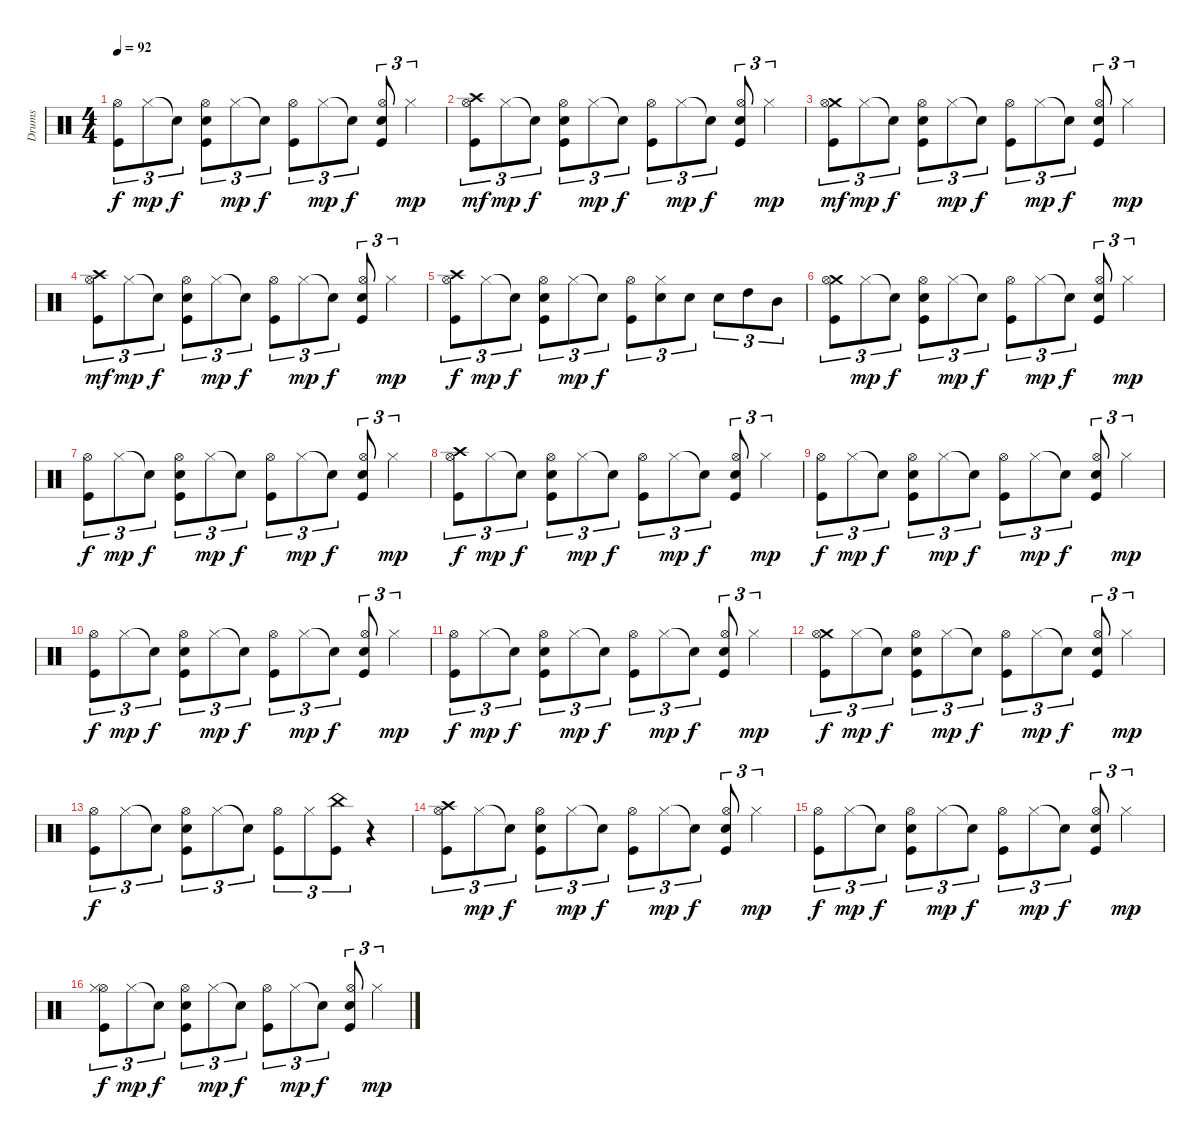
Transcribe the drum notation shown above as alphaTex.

\track ("Drums" "Drums") {instrument percussion}
\staff {score}
\articulation defaults
\ts (4 4)
\tempo 92
\clef neutral
\ks c
("Kick (hit)" "Hi-Hat (open)").8{tu (3 2) dy f} "Hi-Hat (closed)".8{tu (3 2) dy mp} "Snare (hit)"{t}.8{tu (3 2) dy f} ("Kick (hit)" "Hi-Hat (open)" "Snare (hit) 2").8{tu (3 2)} "Hi-Hat (closed)".8{tu (3 2) dy mp} "Snare (hit)"{t}.8{tu (3 2) dy f} ("Hi-Hat (open)" "Kick (hit)").8{tu (3 2)} "Hi-Hat (closed)".8{tu (3 2) dy mp} "Snare (hit)"{t}.8{tu (3 2) dy f} ("Kick (hit)" "Snare (hit) 2" "Hi-Hat (open)").8{tu (3 2)} "Hi-Hat (closed)".4{tu (3 2) dy mp} |
("Crash high (hit)" "Kick (hit)" "Hi-Hat (open)").8{tu (3 2) dy mf} "Hi-Hat (closed)".8{tu (3 2) dy mp} "Snare (hit)"{t}.8{tu (3 2) dy f} ("Kick (hit)" "Hi-Hat (open)" "Snare (hit) 2").8{tu (3 2)} "Hi-Hat (closed)".8{tu (3 2) dy mp} "Snare (hit)"{t}.8{tu (3 2) dy f} ("Hi-Hat (open)" "Kick (hit)").8{tu (3 2)} "Hi-Hat (closed)".8{tu (3 2) dy mp} "Snare (hit)"{t}.8{tu (3 2) dy f} ("Kick (hit)" "Snare (hit) 2" "Hi-Hat (open)").8{tu (3 2)} "Hi-Hat (closed)".4{tu (3 2) dy mp} |
("Crash medium (hit)" "Kick (hit)" "Hi-Hat (open)").8{tu (3 2) dy mf} "Hi-Hat (closed)".8{tu (3 2) dy mp} "Snare (hit)"{t}.8{tu (3 2) dy f} ("Kick (hit)" "Hi-Hat (open)" "Snare (hit) 2").8{tu (3 2)} "Hi-Hat (closed)".8{tu (3 2) dy mp} "Snare (hit)"{t}.8{tu (3 2) dy f} ("Hi-Hat (open)" "Kick (hit)").8{tu (3 2)} "Hi-Hat (closed)".8{tu (3 2) dy mp} "Snare (hit)"{t}.8{tu (3 2) dy f} ("Kick (hit)" "Snare (hit) 2" "Hi-Hat (open)").8{tu (3 2)} "Hi-Hat (closed)".4{tu (3 2) dy mp} |
("Crash high (hit)" "Kick (hit)" "Hi-Hat (open)").8{tu (3 2) dy mf} "Hi-Hat (closed)".8{tu (3 2) dy mp} "Snare (hit)"{t}.8{tu (3 2) dy f} ("Kick (hit)" "Hi-Hat (open)" "Snare (hit) 2").8{tu (3 2)} "Hi-Hat (closed)".8{tu (3 2) dy mp} "Snare (hit)"{t}.8{tu (3 2) dy f} ("Hi-Hat (open)" "Kick (hit)").8{tu (3 2)} "Hi-Hat (closed)".8{tu (3 2) dy mp} "Snare (hit)"{t}.8{tu (3 2) dy f} ("Kick (hit)" "Snare (hit) 2" "Hi-Hat (open)").8{tu (3 2)} "Hi-Hat (closed)".4{tu (3 2) dy mp} |
("Crash high (hit)" "Kick (hit)" "Hi-Hat (open)").8{tu (3 2) dy f} "Hi-Hat (closed)".8{tu (3 2) dy mp} "Snare (hit)"{t}.8{tu (3 2) dy f} ("Snare (hit) 2" "Kick (hit)" "Hi-Hat (open)").8{tu (3 2)} "Hi-Hat (closed)".8{tu (3 2) dy mp} "Snare (hit)"{t}.8{tu (3 2) dy f} ("Hi-Hat (open)" "Kick (hit)").8{tu (3 2)} ("Electric Snare (hit)" "Hi-Hat (closed)").8{tu (3 2)} "Electric Snare (hit)".8{tu (3 2)} "Electric Snare (hit)".8{tu (3 2)} "High Tom (hit)".8{tu (3 2)} "Mid Tom (hit)".8{tu (3 2)} |
("Crash medium (hit)" "Kick (hit)" "Hi-Hat (open)").8{tu (3 2)} "Hi-Hat (closed)".8{tu (3 2) dy mp} "Snare (hit)"{t}.8{tu (3 2) dy f} ("Kick (hit)" "Hi-Hat (open)" "Snare (hit) 2").8{tu (3 2)} "Hi-Hat (closed)".8{tu (3 2) dy mp} "Snare (hit)"{t}.8{tu (3 2) dy f} ("Hi-Hat (open)" "Kick (hit)").8{tu (3 2)} "Hi-Hat (closed)".8{tu (3 2) dy mp} "Snare (hit)"{t}.8{tu (3 2) dy f} ("Kick (hit)" "Snare (hit) 2" "Hi-Hat (open)").8{tu (3 2)} "Hi-Hat (closed)".4{tu (3 2) dy mp} |
("Kick (hit)" "Hi-Hat (open)").8{tu (3 2) dy f} "Hi-Hat (closed)".8{tu (3 2) dy mp} "Snare (hit)"{t}.8{tu (3 2) dy f} ("Kick (hit)" "Hi-Hat (open)" "Snare (hit) 2").8{tu (3 2)} "Hi-Hat (closed)".8{tu (3 2) dy mp} "Snare (hit)"{t}.8{tu (3 2) dy f} ("Hi-Hat (open)" "Kick (hit)").8{tu (3 2)} "Hi-Hat (closed)".8{tu (3 2) dy mp} "Snare (hit)"{t}.8{tu (3 2) dy f} ("Kick (hit)" "Snare (hit) 2" "Hi-Hat (open)").8{tu (3 2)} "Hi-Hat (closed)".4{tu (3 2) dy mp} |
("Crash high (hit)" "Kick (hit)" "Hi-Hat (open)").8{tu (3 2) dy f} "Hi-Hat (closed)".8{tu (3 2) dy mp} "Snare (hit)"{t}.8{tu (3 2) dy f} ("Kick (hit)" "Hi-Hat (open)" "Snare (hit) 2").8{tu (3 2)} "Hi-Hat (closed)".8{tu (3 2) dy mp} "Snare (hit)"{t}.8{tu (3 2) dy f} ("Hi-Hat (open)" "Kick (hit)").8{tu (3 2)} "Hi-Hat (closed)".8{tu (3 2) dy mp} "Snare (hit)"{t}.8{tu (3 2) dy f} ("Kick (hit)" "Snare (hit) 2" "Hi-Hat (open)").8{tu (3 2)} "Hi-Hat (closed)".4{tu (3 2) dy mp} |
("Kick (hit)" "Hi-Hat (open)").8{tu (3 2) dy f} "Hi-Hat (closed)".8{tu (3 2) dy mp} "Snare (hit)"{t}.8{tu (3 2) dy f} ("Kick (hit)" "Hi-Hat (open)" "Snare (hit) 2").8{tu (3 2)} "Hi-Hat (closed)".8{tu (3 2) dy mp} "Snare (hit)"{t}.8{tu (3 2) dy f} ("Hi-Hat (open)" "Kick (hit)").8{tu (3 2)} "Hi-Hat (closed)".8{tu (3 2) dy mp} "Snare (hit)"{t}.8{tu (3 2) dy f} ("Kick (hit)" "Snare (hit) 2" "Hi-Hat (open)").8{tu (3 2)} "Hi-Hat (closed)".4{tu (3 2) dy mp} |
("Kick (hit)" "Hi-Hat (open)").8{tu (3 2) dy f} "Hi-Hat (closed)".8{tu (3 2) dy mp} "Snare (hit)"{t}.8{tu (3 2) dy f} ("Kick (hit)" "Hi-Hat (open)" "Snare (hit) 2").8{tu (3 2)} "Hi-Hat (closed)".8{tu (3 2) dy mp} "Snare (hit)"{t}.8{tu (3 2) dy f} ("Hi-Hat (open)" "Kick (hit)").8{tu (3 2)} "Hi-Hat (closed)".8{tu (3 2) dy mp} "Snare (hit)"{t}.8{tu (3 2) dy f} ("Kick (hit)" "Snare (hit) 2" "Hi-Hat (open)").8{tu (3 2)} "Hi-Hat (closed)".4{tu (3 2) dy mp} |
("Kick (hit)" "Hi-Hat (open)").8{tu (3 2) dy f} "Hi-Hat (closed)".8{tu (3 2) dy mp} "Snare (hit)"{t}.8{tu (3 2) dy f} ("Kick (hit)" "Hi-Hat (open)" "Snare (hit) 2").8{tu (3 2)} "Hi-Hat (closed)".8{tu (3 2) dy mp} "Snare (hit)"{t}.8{tu (3 2) dy f} ("Hi-Hat (open)" "Kick (hit)").8{tu (3 2)} "Hi-Hat (closed)".8{tu (3 2) dy mp} "Snare (hit)"{t}.8{tu (3 2) dy f} ("Kick (hit)" "Snare (hit) 2" "Hi-Hat (open)").8{tu (3 2)} "Hi-Hat (closed)".4{tu (3 2) dy mp} |
("Crash medium (hit)" "Kick (hit)" "Hi-Hat (open)").8{tu (3 2) dy f} "Hi-Hat (closed)".8{tu (3 2) dy mp} "Snare (hit)"{t}.8{tu (3 2) dy f} ("Kick (hit)" "Hi-Hat (open)" "Snare (hit) 2").8{tu (3 2)} "Hi-Hat (closed)".8{tu (3 2) dy mp} "Snare (hit)"{t}.8{tu (3 2) dy f} ("Hi-Hat (open)" "Kick (hit)").8{tu (3 2)} "Hi-Hat (closed)".8{tu (3 2) dy mp} "Snare (hit)"{t}.8{tu (3 2) dy f} ("Kick (hit)" "Snare (hit) 2" "Hi-Hat (open)").8{tu (3 2)} "Hi-Hat (closed)".4{tu (3 2) dy mp} |
("Hi-Hat (open)" "Kick (hit)").8{tu (3 2) dy f} "Hi-Hat (closed)".8{tu (3 2)} "Snare (hit)"{t}.8{tu (3 2)} ("Kick (hit)" "Hi-Hat (open)" "Snare (hit) 2").8{tu (3 2)} "Hi-Hat (closed)".8{tu (3 2)} "Snare (hit)"{t}.8{tu (3 2)} ("Hi-Hat (open)" "Kick (hit)").8{tu (3 2)} "Hi-Hat (closed)".8{tu (3 2)} ("Kick (hit)" "China (hit)").8{tu (3 2)} r.4 |
("Crash high (hit)" "Kick (hit)" "Hi-Hat (open)").8{tu (3 2)} "Hi-Hat (closed)".8{tu (3 2) dy mp} "Snare (hit)"{t}.8{tu (3 2) dy f} ("Kick (hit)" "Hi-Hat (open)" "Snare (hit) 2").8{tu (3 2)} "Hi-Hat (closed)".8{tu (3 2) dy mp} "Snare (hit)"{t}.8{tu (3 2) dy f} ("Hi-Hat (open)" "Kick (hit)").8{tu (3 2)} "Hi-Hat (closed)".8{tu (3 2) dy mp} "Snare (hit)"{t}.8{tu (3 2) dy f} ("Kick (hit)" "Snare (hit) 2" "Hi-Hat (open)").8{tu (3 2)} "Hi-Hat (closed)".4{tu (3 2) dy mp} |
("Kick (hit)" "Hi-Hat (open)").8{tu (3 2) dy f} "Hi-Hat (closed)".8{tu (3 2) dy mp} "Snare (hit)"{t}.8{tu (3 2) dy f} ("Kick (hit)" "Hi-Hat (open)" "Snare (hit) 2").8{tu (3 2)} "Hi-Hat (closed)".8{tu (3 2) dy mp} "Snare (hit)"{t}.8{tu (3 2) dy f} ("Hi-Hat (open)" "Kick (hit)").8{tu (3 2)} "Hi-Hat (closed)".8{tu (3 2) dy mp} "Snare (hit)"{t}.8{tu (3 2) dy f} ("Kick (hit)" "Snare (hit) 2" "Hi-Hat (open)").8{tu (3 2)} "Hi-Hat (closed)".4{tu (3 2) dy mp} |
("Kick (hit)" "Hi-Hat (open)" "Hi-Hat (closed)").8{tu (3 2) dy f} "Hi-Hat (closed)".8{tu (3 2) dy mp} "Snare (hit)"{t}.8{tu (3 2) dy f} ("Kick (hit)" "Hi-Hat (open)" "Snare (hit) 2").8{tu (3 2)} "Hi-Hat (closed)".8{tu (3 2) dy mp} "Snare (hit)"{t}.8{tu (3 2) dy f} ("Hi-Hat (open)" "Kick (hit)").8{tu (3 2)} "Hi-Hat (closed)".8{tu (3 2) dy mp} "Snare (hit)"{t}.8{tu (3 2) dy f} ("Kick (hit)" "Snare (hit) 2" "Hi-Hat (open)").8{tu (3 2)} "Hi-Hat (closed)".4{tu (3 2) dy mp}
